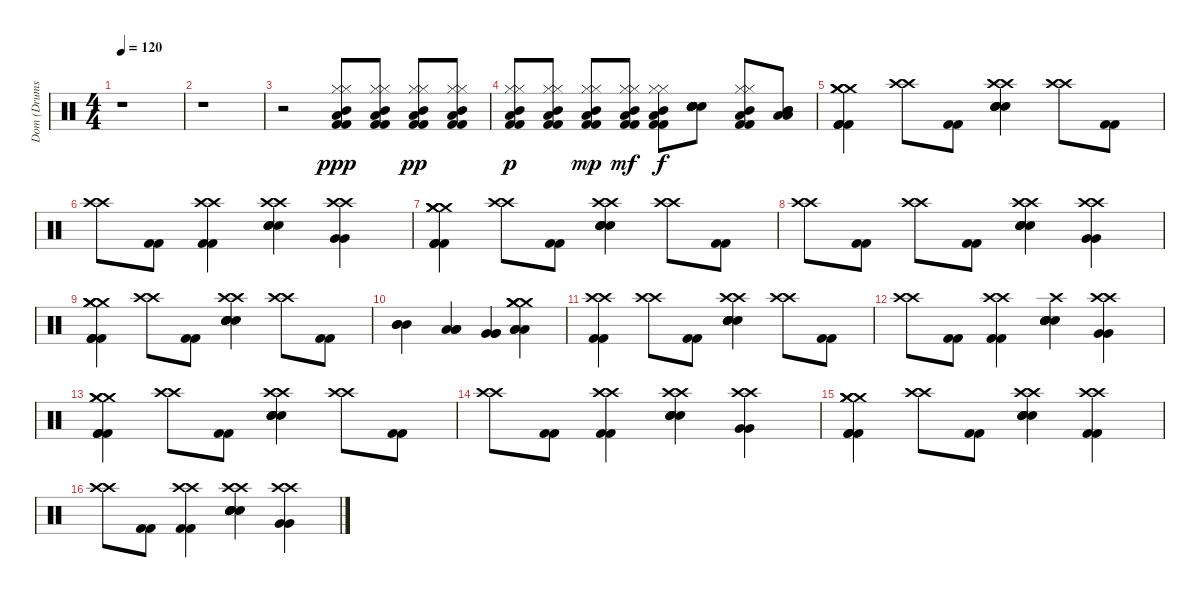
\track ("Dom (Drums)" "Dom (Drums") {instrument percussion}
\staff {score}
\articulation defaults
\ts (4 4)
\tempo 120
\clef neutral
\ks c
r.1{dy f} |
r.1 |
r.2 ("Mid Tom (hit)" "Hi-Hat (closed)" "Kick (hit) 2" "Kick (hit) 2" "Hi-Hat (closed)" "Low Tom (hit)").8{dy ppp} ("Mid Tom (hit)" "Hi-Hat (closed)" "Kick (hit) 2" "Kick (hit) 2" "Hi-Hat (closed)" "Low Tom (hit)").8 ("Mid Tom (hit)" "Hi-Hat (closed)" "Kick (hit) 2" "Kick (hit) 2" "Hi-Hat (closed)" "Low Tom (hit)").8{dy pp} ("Mid Tom (hit)" "Hi-Hat (closed)" "Kick (hit) 2" "Kick (hit) 2" "Hi-Hat (closed)" "Low Tom (hit)").8 |
("Mid Tom (hit)" "Hi-Hat (closed)" "Kick (hit) 2" "Kick (hit) 2" "Hi-Hat (closed)" "Low Tom (hit)").8{dy p} ("Mid Tom (hit)" "Hi-Hat (closed)" "Kick (hit) 2" "Kick (hit) 2" "Hi-Hat (closed)" "Low Tom (hit)").8 ("Mid Tom (hit)" "Hi-Hat (closed)" "Kick (hit) 2" "Kick (hit) 2" "Hi-Hat (closed)" "Low Tom (hit)").8{dy mp} ("Mid Tom (hit)" "Hi-Hat (closed)" "Kick (hit) 2" "Kick (hit) 2" "Hi-Hat (closed)" "Low Tom (hit)").8{dy mf} ("Mid Tom (hit)" "Hi-Hat (closed)" "Kick (hit) 2" "Kick (hit) 2" "Hi-Hat (closed)" "Low Tom (hit)").8{dy f} ("Electric Snare (hit)" "Electric Snare (hit)" "Electric Snare (hit)" "Snare (hit) 2" "Snare (hit) 2" "Snare (hit) 2").8 ("Mid Tom (hit)" "Hi-Hat (closed)" "Kick (hit) 2" "Kick (hit) 2" "Hi-Hat (closed)" "Low Tom (hit)").8 ("Low Tom (hit)" "Mid Tom (hit)" "Low Tom (hit)" "Mid Tom (hit)").8 |
("Crash medium (hit)" "Crash medium (hit)" "Crash medium (hit)" "Kick (hit) 2" "Kick (hit) 2" "Kick (hit) 2").4 ("Crash high (hit)" "Crash high (hit)").8 ("Kick (hit) 2" "Kick (hit) 2").8 ("Crash high (hit)" "Crash high (hit)" "Snare (hit) 2" "Snare (hit) 2" "Electric Snare (hit)" "Electric Snare (hit)").4 ("Crash high (hit)" "Crash high (hit)").8 ("Kick (hit) 2" "Kick (hit) 2").8 |
("Crash high (hit)" "Crash high (hit)").8 ("Kick (hit) 2" "Kick (hit) 2").8 ("Crash high (hit)" "Crash high (hit)" "Kick (hit) 2" "Kick (hit) 2").4 ("Crash high (hit)" "Crash high (hit)" "Electric Snare (hit)" "Electric Snare (hit)" "Snare (hit) 2" "Snare (hit) 2").4 ("Crash high (hit)" "Crash high (hit)" "Very Low Tom (hit)" "Very Low Tom (hit)").4 |
("Crash medium (hit)" "Crash medium (hit)" "Crash medium (hit)" "Kick (hit) 2" "Kick (hit) 2" "Kick (hit) 2").4 ("Crash high (hit)" "Crash high (hit)").8 ("Kick (hit) 2" "Kick (hit) 2").8 ("Crash high (hit)" "Crash high (hit)" "Snare (hit) 2" "Snare (hit) 2" "Electric Snare (hit)" "Electric Snare (hit)").4 ("Crash high (hit)" "Crash high (hit)").8 ("Kick (hit) 2" "Kick (hit) 2").8 |
("Crash high (hit)" "Crash high (hit)").8 ("Kick (hit) 2" "Kick (hit) 2").8 ("Crash high (hit)" "Crash high (hit)").8 ("Kick (hit) 2" "Kick (hit) 2").8 ("Crash high (hit)" "Crash high (hit)" "Electric Snare (hit)" "Electric Snare (hit)" "Snare (hit) 2" "Snare (hit) 2").4 ("Crash high (hit)" "Crash high (hit)" "Very Low Tom (hit)" "Very Low Tom (hit)").4 |
("Crash medium (hit)" "Crash medium (hit)" "Crash medium (hit)" "Kick (hit) 2" "Kick (hit) 2" "Kick (hit) 2").4 ("Crash high (hit)" "Crash high (hit)").8 ("Kick (hit) 2" "Kick (hit) 2").8 ("Crash high (hit)" "Crash high (hit)" "Snare (hit) 2" "Snare (hit) 2" "Electric Snare (hit)" "Electric Snare (hit)").4 ("Crash high (hit)" "Crash high (hit)").8 ("Kick (hit) 2" "Kick (hit) 2").8 |
("Mid Tom (hit)" "Mid Tom (hit)" "Mid Tom (hit)").4 ("Low Tom (hit)" "Low Tom (hit)" "Low Tom (hit)").4 ("Very Low Tom (hit)" "Very Low Tom (hit)" "Very Low Tom (hit)").4 ("Crash medium (hit)" "Crash medium (hit)" "Crash medium (hit)" "Low Floor Tom (hit)" "Low Floor Tom (hit)" "Low Floor Tom (hit)").4 |
("Crash high (hit)" "Crash high (hit)" "Kick (hit) 2" "Kick (hit) 2").4 ("Crash high (hit)" "Crash high (hit)").8 ("Kick (hit) 2" "Kick (hit) 2").8 ("Crash high (hit)" "Crash high (hit)" "Snare (hit) 2" "Snare (hit) 2" "Electric Snare (hit)" "Electric Snare (hit)").4 ("Crash high (hit)" "Crash high (hit)").8 ("Kick (hit) 2" "Kick (hit) 2").8 |
("Crash high (hit)" "Crash high (hit)").8 ("Kick (hit) 2" "Kick (hit) 2").8 ("Crash high (hit)" "Crash high (hit)" "Kick (hit) 2" "Kick (hit) 2").4 ("Snare (hit)" "Crash high (hit)" "Electric Snare (hit)" "Electric Snare (hit)" "Snare (hit) 2" "Snare (hit) 2").4 ("Crash high (hit)" "Crash high (hit)" "Very Low Tom (hit)" "Very Low Tom (hit)").4 |
("Crash medium (hit)" "Crash medium (hit)" "Crash medium (hit)" "Kick (hit) 2" "Kick (hit) 2" "Kick (hit) 2").4 ("Crash high (hit)" "Crash high (hit)").8 ("Kick (hit) 2" "Kick (hit) 2").8 ("Crash high (hit)" "Crash high (hit)" "Snare (hit) 2" "Snare (hit) 2" "Electric Snare (hit)" "Electric Snare (hit)").4 ("Crash high (hit)" "Crash high (hit)").8 ("Kick (hit) 2" "Kick (hit) 2").8 |
("Crash high (hit)" "Crash high (hit)").8 ("Kick (hit) 2" "Kick (hit) 2").8 ("Crash high (hit)" "Crash high (hit)" "Kick (hit) 2" "Kick (hit) 2").4 ("Crash high (hit)" "Crash high (hit)" "Electric Snare (hit)" "Electric Snare (hit)" "Snare (hit) 2" "Snare (hit) 2").4 ("Crash high (hit)" "Crash high (hit)" "Very Low Tom (hit)" "Very Low Tom (hit)").4 |
("Crash medium (hit)" "Crash medium (hit)" "Crash medium (hit)" "Kick (hit) 2" "Kick (hit) 2" "Kick (hit) 2").4 ("Crash high (hit)" "Crash high (hit)").8 ("Kick (hit) 2" "Kick (hit) 2").8 ("Crash high (hit)" "Crash high (hit)" "Snare (hit) 2" "Snare (hit) 2" "Electric Snare (hit)" "Electric Snare (hit)").4 ("Crash high (hit)" "Crash high (hit)" "Kick (hit) 2" "Kick (hit) 2").4 |
("Crash high (hit)" "Crash high (hit)").8 ("Kick (hit) 2" "Kick (hit) 2").8 ("Crash high (hit)" "Crash high (hit)" "Kick (hit) 2" "Kick (hit) 2").4 ("Crash high (hit)" "Crash high (hit)" "Electric Snare (hit)" "Electric Snare (hit)" "Snare (hit) 2" "Snare (hit) 2").4 ("Crash high (hit)" "Crash high (hit)" "Very Low Tom (hit)" "Very Low Tom (hit)").4
